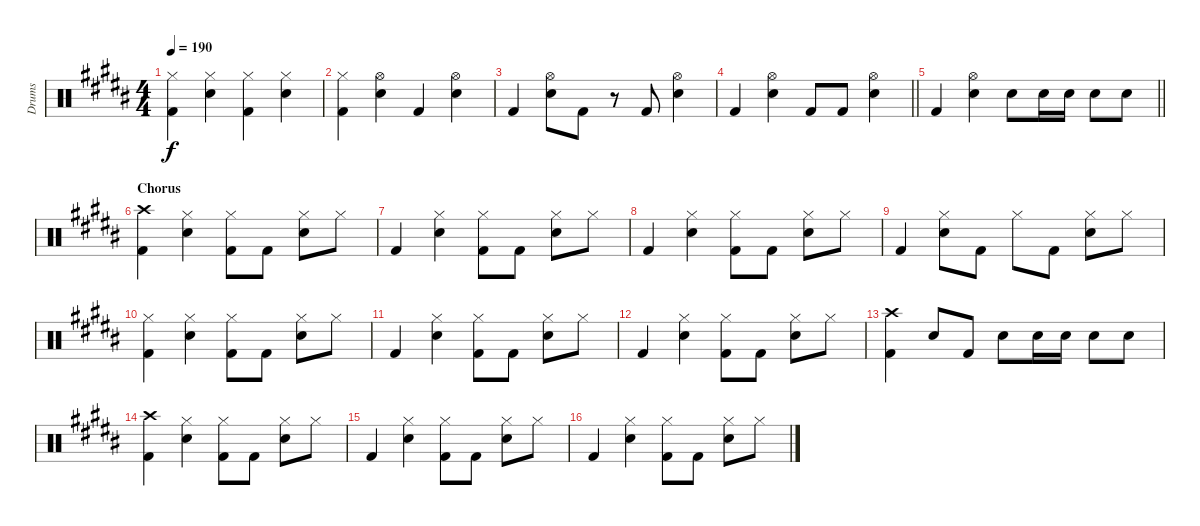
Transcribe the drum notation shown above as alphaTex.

\track ("Drums" "Drums") {instrument percussion}
\staff {score}
\articulation defaults
\ts (4 4)
\tempo 190
\clef neutral
\ks b
("Hi-Hat (closed)" "Kick (hit) 2").4{dy f} ("Hi-Hat (closed)" "Electric Snare (hit)").4 ("Hi-Hat (closed)" "Kick (hit) 2").4 ("Hi-Hat (closed)" "Electric Snare (hit)").4 |
("Hi-Hat (closed)" "Kick (hit) 2").4 ("Hi-Hat (open)" "Electric Snare (hit)").4 "Kick (hit) 2".4 ("Hi-Hat (open)" "Electric Snare (hit)").4 |
"Kick (hit) 2".4 ("Hi-Hat (open)" "Electric Snare (hit)").8 "Kick (hit) 2".8 r.8 "Kick (hit) 2".8 ("Hi-Hat (open)" "Electric Snare (hit)").4 |
\barLineRight lightlight "Kick (hit) 2".4
("Hi-Hat (open)" "Electric Snare (hit)").4 "Kick (hit) 2".8 "Kick (hit) 2".8 ("Hi-Hat (open)" "Electric Snare (hit)").4 |
\barLineRight lightlight "Kick (hit) 2".4
("Hi-Hat (open)" "Electric Snare (hit)").4 "Electric Snare (hit)".8 "Electric Snare (hit)".16 "Electric Snare (hit)".16 "Electric Snare (hit)".8 "Electric Snare (hit)".8 |
\section ("" "Chorus")
("Crash high (hit)" "Kick (hit) 2").4 ("Hi-Hat (closed)" "Electric Snare (hit)").4 ("Hi-Hat (closed)" "Kick (hit) 2").8 "Kick (hit) 2".8 ("Hi-Hat (closed)" "Electric Snare (hit)").8 "Hi-Hat (closed)".8 |
"Kick (hit) 2".4 ("Hi-Hat (closed)" "Electric Snare (hit)").4 ("Hi-Hat (closed)" "Kick (hit) 2").8 "Kick (hit) 2".8 ("Hi-Hat (closed)" "Electric Snare (hit)").8 "Hi-Hat (closed)".8 |
"Kick (hit) 2".4 ("Hi-Hat (closed)" "Electric Snare (hit)").4 ("Hi-Hat (closed)" "Kick (hit) 2").8 "Kick (hit) 2".8 ("Hi-Hat (closed)" "Electric Snare (hit)").8 "Hi-Hat (closed)".8 |
"Kick (hit) 2".4 ("Hi-Hat (closed)" "Electric Snare (hit)").8 "Kick (hit) 2".8 "Hi-Hat (closed)".8 "Kick (hit) 2".8 ("Hi-Hat (closed)" "Electric Snare (hit)").8 "Hi-Hat (closed)".8 |
("Hi-Hat (closed)" "Kick (hit) 2").4 ("Hi-Hat (closed)" "Electric Snare (hit)").4 ("Hi-Hat (closed)" "Kick (hit) 2").8 "Kick (hit) 2".8 ("Hi-Hat (closed)" "Electric Snare (hit)").8 "Hi-Hat (closed)".8 |
"Kick (hit) 2".4 ("Hi-Hat (closed)" "Electric Snare (hit)").4 ("Hi-Hat (closed)" "Kick (hit) 2").8 "Kick (hit) 2".8 ("Hi-Hat (closed)" "Electric Snare (hit)").8 "Hi-Hat (closed)".8 |
"Kick (hit) 2".4 ("Hi-Hat (closed)" "Electric Snare (hit)").4 ("Hi-Hat (closed)" "Kick (hit) 2").8 "Kick (hit) 2".8 ("Hi-Hat (closed)" "Electric Snare (hit)").8 "Hi-Hat (closed)".8 |
("Crash high (hit)" "Kick (hit) 2").4 "Electric Snare (hit)".8 "Kick (hit) 2".8 "Electric Snare (hit)".8 "Electric Snare (hit)".16 "Electric Snare (hit)".16 "Electric Snare (hit)".8 "Electric Snare (hit)".8 |
("Crash high (hit)" "Kick (hit) 2").4 ("Hi-Hat (closed)" "Electric Snare (hit)").4 ("Hi-Hat (closed)" "Kick (hit) 2").8 "Kick (hit) 2".8 ("Hi-Hat (closed)" "Electric Snare (hit)").8 "Hi-Hat (closed)".8 |
"Kick (hit) 2".4 ("Hi-Hat (closed)" "Electric Snare (hit)").4 ("Hi-Hat (closed)" "Kick (hit) 2").8 "Kick (hit) 2".8 ("Hi-Hat (closed)" "Electric Snare (hit)").8 "Hi-Hat (closed)".8 |
"Kick (hit) 2".4 ("Hi-Hat (closed)" "Electric Snare (hit)").4 ("Hi-Hat (closed)" "Kick (hit) 2").8 "Kick (hit) 2".8 ("Hi-Hat (closed)" "Electric Snare (hit)").8 "Hi-Hat (closed)".8
